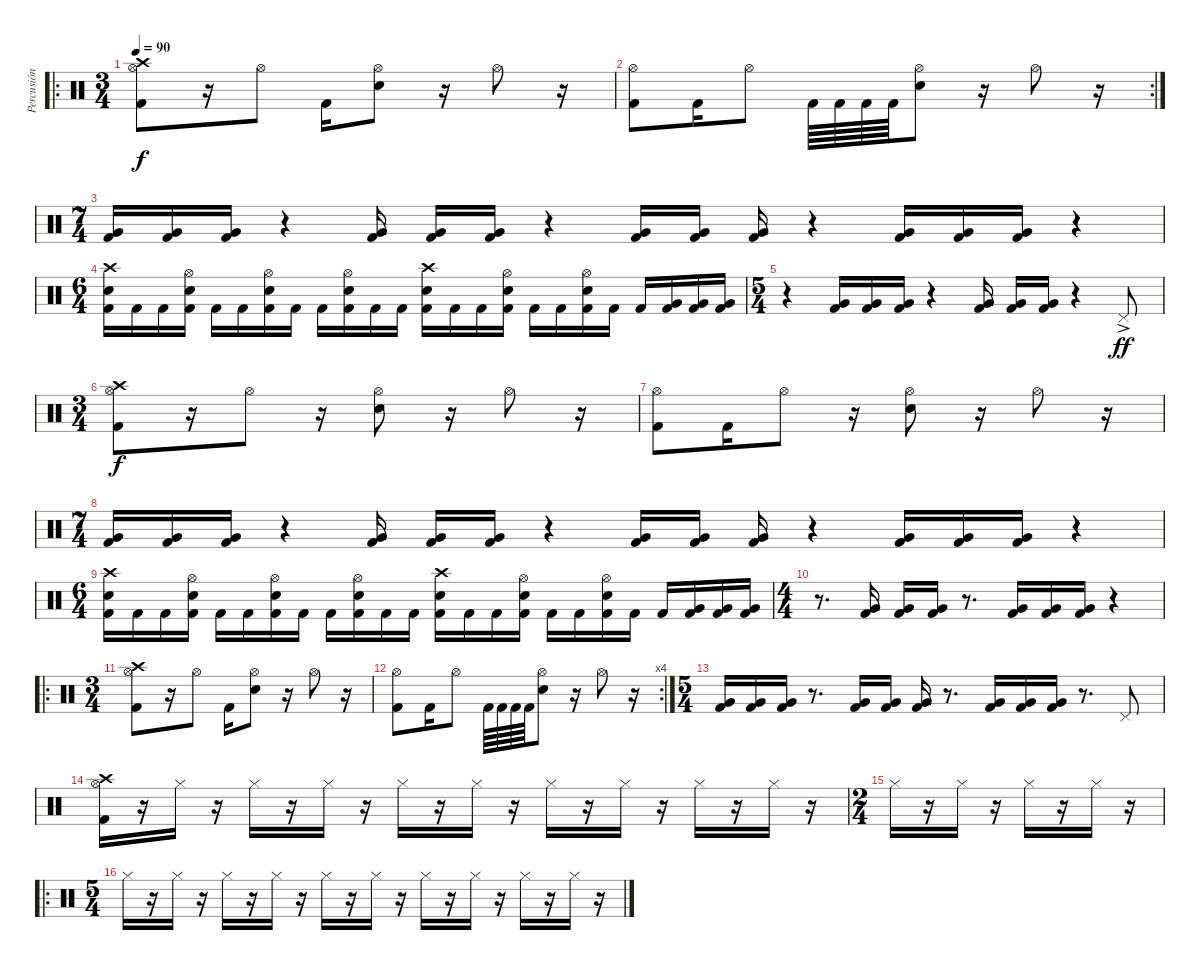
\track ("Percusión" "Percusión") {instrument percussion}
\staff {score}
\articulation defaults
\ro
\ts (3 4)
\tempo 90
\clef neutral
\ks c
("Crash high (hit)" "Hi-Hat (open)" "Kick (hit) 2").8{dy f} r.16 "Hi-Hat (open)".8 "Kick (hit) 2".16 ("Hi-Hat (open)" "Electric Snare (hit)").8 r.16 "Hi-Hat (open)".8 r.16 |
\rc 2
("Hi-Hat (open)" "Kick (hit) 2").8 "Kick (hit) 2".16 "Hi-Hat (open)".8 "Kick (hit) 2".64 "Kick (hit) 2".64 "Kick (hit) 2".64 "Kick (hit) 2".64 ("Hi-Hat (open)" "Electric Snare (hit)").8 r.16 "Hi-Hat (open)".8 r.16 |
\ts (7 4)
("Very Low Tom (hit)" "Kick (hit) 2").16 ("Very Low Tom (hit)" "Kick (hit) 2").16 ("Very Low Tom (hit)" "Kick (hit) 2").16 r.4 ("Very Low Tom (hit)" "Kick (hit) 2").16 ("Very Low Tom (hit)" "Kick (hit) 2").16 ("Very Low Tom (hit)" "Kick (hit) 2").16 r.4 ("Very Low Tom (hit)" "Kick (hit) 2").16 ("Very Low Tom (hit)" "Kick (hit) 2").16 ("Very Low Tom (hit)" "Kick (hit) 2").16 r.4 ("Very Low Tom (hit)" "Kick (hit) 2").16 ("Very Low Tom (hit)" "Kick (hit) 2").16 ("Very Low Tom (hit)" "Kick (hit) 2").16 r.4 |
\ts (6 4)
("Crash high (hit)" "Electric Snare (hit)" "Kick (hit) 2").16 "Kick (hit) 2".16 "Kick (hit) 2".16 ("Hi-Hat (open)" "Electric Snare (hit)" "Kick (hit) 2").16 "Kick (hit) 2".16 "Kick (hit) 2".16 ("Hi-Hat (open)" "Electric Snare (hit)" "Kick (hit) 2").16 "Kick (hit) 2".16 "Kick (hit) 2".16 ("Hi-Hat (open)" "Electric Snare (hit)" "Kick (hit) 2").16 "Kick (hit) 2".16 "Kick (hit) 2".16 ("Crash high (hit)" "Electric Snare (hit)" "Kick (hit) 2").16 "Kick (hit) 2".16 "Kick (hit) 2".16 ("Hi-Hat (open)" "Electric Snare (hit)" "Kick (hit) 2").16 "Kick (hit) 2".16 "Kick (hit) 2".16 ("Hi-Hat (open)" "Electric Snare (hit)" "Kick (hit) 2").16 "Kick (hit) 2".16 "Kick (hit) 2".16 ("Very Low Tom (hit)" "Kick (hit) 2").16 ("Very Low Tom (hit)" "Kick (hit) 2").16 ("Very Low Tom (hit)" "Kick (hit) 2").16 |
\ts (5 4)
r.4 ("Very Low Tom (hit)" "Kick (hit) 2").16 ("Very Low Tom (hit)" "Kick (hit) 2").16 ("Very Low Tom (hit)" "Kick (hit) 2").16 r.4 ("Very Low Tom (hit)" "Kick (hit) 2").16 ("Very Low Tom (hit)" "Kick (hit) 2").16 ("Very Low Tom (hit)" "Kick (hit) 2").16 r.4 "Pedal Hi-Hat (hit)"{ac}.8{dy ff} |
\ts (3 4)
("Crash high (hit)" "Hi-Hat (open)" "Kick (hit) 2").8{dy f} r.16 "Hi-Hat (open)".8 r.16 ("Hi-Hat (open)" "Electric Snare (hit)").8 r.16 "Hi-Hat (open)".8 r.16 |
("Hi-Hat (open)" "Kick (hit) 2").8 "Kick (hit) 2".16 "Hi-Hat (open)".8 r.16 ("Hi-Hat (open)" "Electric Snare (hit)").8 r.16 "Hi-Hat (open)".8 r.16 |
\ts (7 4)
("Very Low Tom (hit)" "Kick (hit) 2").16 ("Very Low Tom (hit)" "Kick (hit) 2").16 ("Very Low Tom (hit)" "Kick (hit) 2").16 r.4 ("Very Low Tom (hit)" "Kick (hit) 2").16 ("Very Low Tom (hit)" "Kick (hit) 2").16 ("Very Low Tom (hit)" "Kick (hit) 2").16 r.4 ("Very Low Tom (hit)" "Kick (hit) 2").16 ("Very Low Tom (hit)" "Kick (hit) 2").16 ("Very Low Tom (hit)" "Kick (hit) 2").16 r.4 ("Very Low Tom (hit)" "Kick (hit) 2").16 ("Very Low Tom (hit)" "Kick (hit) 2").16 ("Very Low Tom (hit)" "Kick (hit) 2").16 r.4 |
\ts (6 4)
("Crash high (hit)" "Electric Snare (hit)" "Kick (hit) 2").16 "Kick (hit) 2".16 "Kick (hit) 2".16 ("Hi-Hat (open)" "Electric Snare (hit)" "Kick (hit) 2").16 "Kick (hit) 2".16 "Kick (hit) 2".16 ("Hi-Hat (open)" "Electric Snare (hit)" "Kick (hit) 2").16 "Kick (hit) 2".16 "Kick (hit) 2".16 ("Hi-Hat (open)" "Electric Snare (hit)" "Kick (hit) 2").16 "Kick (hit) 2".16 "Kick (hit) 2".16 ("Crash high (hit)" "Electric Snare (hit)" "Kick (hit) 2").16 "Kick (hit) 2".16 "Kick (hit) 2".16 ("Hi-Hat (open)" "Electric Snare (hit)" "Kick (hit) 2").16 "Kick (hit) 2".16 "Kick (hit) 2".16 ("Hi-Hat (open)" "Electric Snare (hit)" "Kick (hit) 2").16 "Kick (hit) 2".16 "Kick (hit) 2".16 ("Very Low Tom (hit)" "Kick (hit) 2").16 ("Very Low Tom (hit)" "Kick (hit) 2").16 ("Very Low Tom (hit)" "Kick (hit) 2").16 |
\ts (4 4)
r.8{d} ("Very Low Tom (hit)" "Kick (hit) 2").16 ("Very Low Tom (hit)" "Kick (hit) 2").16 ("Very Low Tom (hit)" "Kick (hit) 2").16 r.8{d} ("Very Low Tom (hit)" "Kick (hit) 2").16 ("Very Low Tom (hit)" "Kick (hit) 2").16 ("Very Low Tom (hit)" "Kick (hit) 2").16 r.4 |
\ro
\ts (3 4)
("Crash high (hit)" "Hi-Hat (open)" "Kick (hit) 2").8 r.16 "Hi-Hat (open)".8 "Kick (hit) 2".16 ("Hi-Hat (open)" "Electric Snare (hit)").8 r.16 "Hi-Hat (open)".8 r.16 |
\rc 4
("Hi-Hat (open)" "Kick (hit) 2").8 "Kick (hit) 2".16 "Hi-Hat (open)".8 "Kick (hit) 2".64 "Kick (hit) 2".64 "Kick (hit) 2".64 "Kick (hit) 2".64 ("Hi-Hat (open)" "Electric Snare (hit)").8 r.16 "Hi-Hat (open)".8 r.16 |
\ts (5 4)
("Very Low Tom (hit)" "Kick (hit) 2").16 ("Very Low Tom (hit)" "Kick (hit) 2").16 ("Very Low Tom (hit)" "Kick (hit) 2").16 r.8{d} ("Very Low Tom (hit)" "Kick (hit) 2").16 ("Very Low Tom (hit)" "Kick (hit) 2").16 ("Very Low Tom (hit)" "Kick (hit) 2").16 r.8{d} ("Very Low Tom (hit)" "Kick (hit) 2").16 ("Very Low Tom (hit)" "Kick (hit) 2").16 ("Very Low Tom (hit)" "Kick (hit) 2").16 r.8{d} "Pedal Hi-Hat (hit)".8 |
("Hi-Hat (open)" "Crash high (hit)" "Kick (hit) 2").16 r.16 "Hi-Hat (closed)".16 r.16 "Hi-Hat (closed)".16 r.16 "Hi-Hat (closed)".16 r.16 "Hi-Hat (closed)".16 r.16 "Hi-Hat (closed)".16 r.16 "Hi-Hat (closed)".16 r.16 "Hi-Hat (closed)".16 r.16 "Hi-Hat (closed)".16 r.16 "Hi-Hat (closed)".16 r.16 |
\ts (2 4)
"Hi-Hat (closed)".16 r.16 "Hi-Hat (closed)".16 r.16 "Hi-Hat (closed)".16 r.16 "Hi-Hat (closed)".16 r.16 |
\ro
\ts (5 4)
"Hi-Hat (closed)".16 r.16 "Hi-Hat (closed)".16 r.16 "Hi-Hat (closed)".16 r.16 "Hi-Hat (closed)".16 r.16 "Hi-Hat (closed)".16 r.16 "Hi-Hat (closed)".16 r.16 "Hi-Hat (closed)".16 r.16 "Hi-Hat (closed)".16 r.16 "Hi-Hat (closed)".16 r.16 "Hi-Hat (closed)".16 r.16
